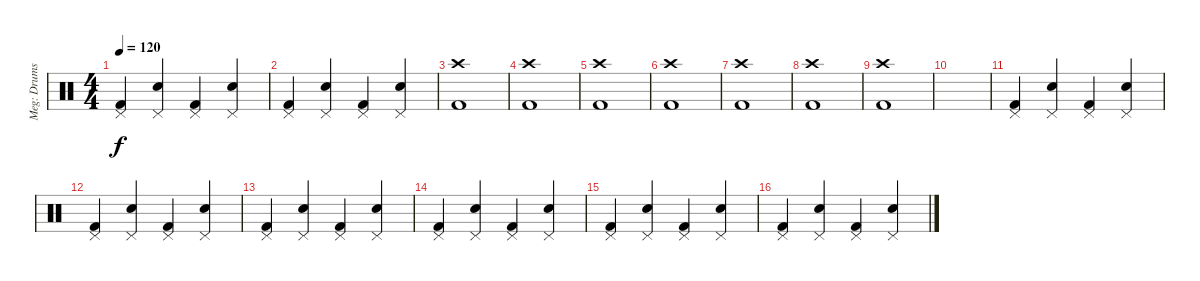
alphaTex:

\track ("Meg: Drums" "Meg: Drums") {instrument percussion}
\staff {score}
\articulation defaults
\ts (4 4)
\tempo 120
\clef neutral
\ks c
("Kick (hit) 2" "Pedal Hi-Hat (hit)").4{dy f} ("Snare (hit) 2" "Pedal Hi-Hat (hit)").4 ("Kick (hit) 2" "Pedal Hi-Hat (hit)").4 ("Snare (hit) 2" "Pedal Hi-Hat (hit)").4 |
("Kick (hit) 2" "Pedal Hi-Hat (hit)").4 ("Snare (hit) 2" "Pedal Hi-Hat (hit)").4 ("Kick (hit) 2" "Pedal Hi-Hat (hit)").4 ("Snare (hit) 2" "Pedal Hi-Hat (hit)").4 |
("Kick (hit) 2" "Crash high (hit)").1 |
("Kick (hit) 2" "Crash high (hit)").1 |
("Kick (hit) 2" "Crash high (hit)").1 |
("Kick (hit) 2" "Crash high (hit)").1 |
("Kick (hit) 2" "Crash high (hit)").1 |
("Kick (hit) 2" "Crash high (hit)").1 |
("Kick (hit) 2" "Crash high (hit)").1 |
|
("Kick (hit) 2" "Pedal Hi-Hat (hit)").4 ("Snare (hit) 2" "Pedal Hi-Hat (hit)").4 ("Kick (hit) 2" "Pedal Hi-Hat (hit)").4 ("Snare (hit) 2" "Pedal Hi-Hat (hit)").4 |
("Kick (hit) 2" "Pedal Hi-Hat (hit)").4 ("Snare (hit) 2" "Pedal Hi-Hat (hit)").4 ("Kick (hit) 2" "Pedal Hi-Hat (hit)").4 ("Snare (hit) 2" "Pedal Hi-Hat (hit)").4 |
("Kick (hit) 2" "Pedal Hi-Hat (hit)").4 ("Snare (hit) 2" "Pedal Hi-Hat (hit)").4 ("Kick (hit) 2" "Pedal Hi-Hat (hit)").4 ("Snare (hit) 2" "Pedal Hi-Hat (hit)").4 |
("Kick (hit) 2" "Pedal Hi-Hat (hit)").4 ("Snare (hit) 2" "Pedal Hi-Hat (hit)").4 ("Kick (hit) 2" "Pedal Hi-Hat (hit)").4 ("Snare (hit) 2" "Pedal Hi-Hat (hit)").4 |
("Kick (hit) 2" "Pedal Hi-Hat (hit)").4 ("Snare (hit) 2" "Pedal Hi-Hat (hit)").4 ("Kick (hit) 2" "Pedal Hi-Hat (hit)").4 ("Snare (hit) 2" "Pedal Hi-Hat (hit)").4 |
("Kick (hit) 2" "Pedal Hi-Hat (hit)").4 ("Snare (hit) 2" "Pedal Hi-Hat (hit)").4 ("Kick (hit) 2" "Pedal Hi-Hat (hit)").4 ("Snare (hit) 2" "Pedal Hi-Hat (hit)").4
